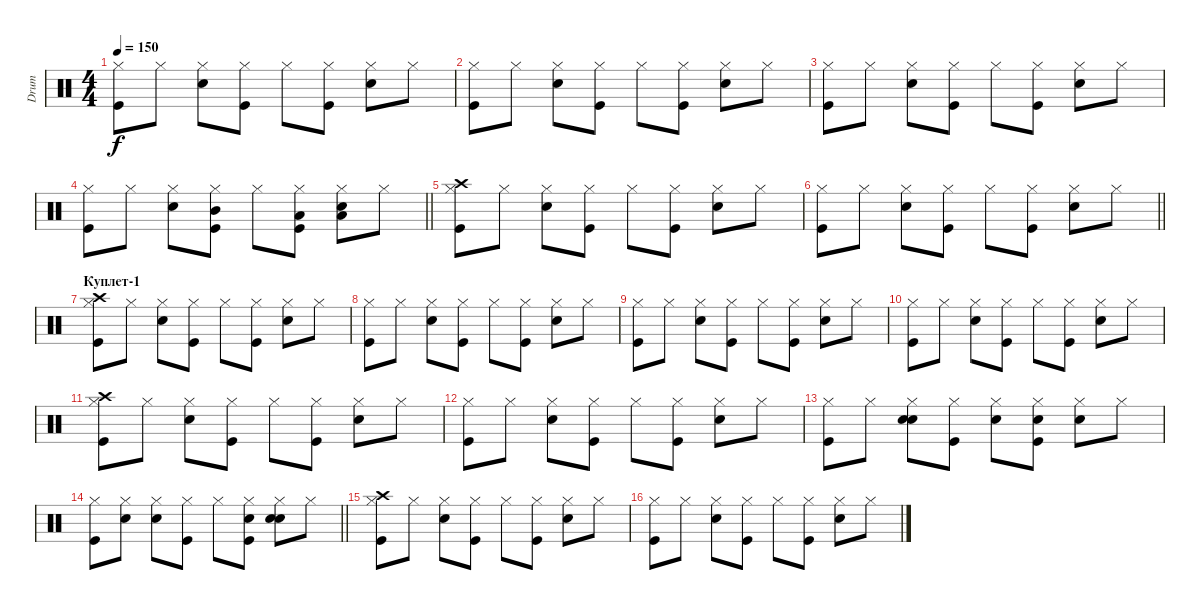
\track ("Drum" "Drum") {instrument percussion}
\staff {score}
\articulation defaults
\ts (4 4)
\tempo 150
\clef neutral
\ks c
("Kick (hit)" "Hi-Hat (closed)").8{dy f} "Hi-Hat (closed)".8 ("Snare (hit) 2" "Hi-Hat (closed)").8 ("Kick (hit)" "Hi-Hat (closed)").8 "Hi-Hat (closed)".8 ("Kick (hit)" "Hi-Hat (closed)").8 ("Snare (hit) 2" "Hi-Hat (closed)").8 "Hi-Hat (closed)".8 |
("Kick (hit)" "Hi-Hat (closed)").8 "Hi-Hat (closed)".8 ("Snare (hit) 2" "Hi-Hat (closed)").8 ("Kick (hit)" "Hi-Hat (closed)").8 "Hi-Hat (closed)".8 ("Kick (hit)" "Hi-Hat (closed)").8 ("Snare (hit) 2" "Hi-Hat (closed)").8 "Hi-Hat (closed)".8 |
("Kick (hit)" "Hi-Hat (closed)").8 "Hi-Hat (closed)".8 ("Snare (hit) 2" "Hi-Hat (closed)").8 ("Kick (hit)" "Hi-Hat (closed)").8 "Hi-Hat (closed)".8 ("Kick (hit)" "Hi-Hat (closed)").8 ("Snare (hit) 2" "Hi-Hat (closed)").8 "Hi-Hat (closed)".8 |
\barLineRight lightlight
("Kick (hit)" "Hi-Hat (closed)").8 "Hi-Hat (closed)".8 ("Snare (hit) 2" "Hi-Hat (closed)").8 ("Kick (hit)" "Hi-Hat (closed)" "Mid Tom (hit)").8 "Hi-Hat (closed)".8 ("Kick (hit)" "Hi-Hat (closed)" "Low Tom (hit)").8 ("Snare (hit) 2" "Hi-Hat (closed)" "Low Tom (hit)").8 "Hi-Hat (closed)".8 |
("Kick (hit)" "Hi-Hat (closed)" "Crash high (hit)").8 "Hi-Hat (closed)".8 ("Snare (hit) 2" "Hi-Hat (closed)").8 ("Kick (hit)" "Hi-Hat (closed)").8 "Hi-Hat (closed)".8 ("Kick (hit)" "Hi-Hat (closed)").8 ("Snare (hit) 2" "Hi-Hat (closed)").8 "Hi-Hat (closed)".8 |
\barLineRight lightlight
("Kick (hit)" "Hi-Hat (closed)").8 "Hi-Hat (closed)".8 ("Snare (hit) 2" "Hi-Hat (closed)").8 ("Kick (hit)" "Hi-Hat (closed)").8 "Hi-Hat (closed)".8 ("Kick (hit)" "Hi-Hat (closed)").8 ("Snare (hit) 2" "Hi-Hat (closed)").8 "Hi-Hat (closed)".8 |
\section ("" "Куплет-1")
("Kick (hit)" "Hi-Hat (closed)" "Crash high (hit)").8 "Hi-Hat (closed)".8 ("Snare (hit) 2" "Hi-Hat (closed)").8 ("Kick (hit)" "Hi-Hat (closed)").8 "Hi-Hat (closed)".8 ("Kick (hit)" "Hi-Hat (closed)").8 ("Snare (hit) 2" "Hi-Hat (closed)").8 "Hi-Hat (closed)".8 |
("Kick (hit)" "Hi-Hat (closed)").8 "Hi-Hat (closed)".8 ("Snare (hit) 2" "Hi-Hat (closed)").8 ("Kick (hit)" "Hi-Hat (closed)").8 "Hi-Hat (closed)".8 ("Kick (hit)" "Hi-Hat (closed)").8 ("Snare (hit) 2" "Hi-Hat (closed)").8 "Hi-Hat (closed)".8 |
("Kick (hit)" "Hi-Hat (closed)").8 "Hi-Hat (closed)".8 ("Snare (hit) 2" "Hi-Hat (closed)").8 ("Kick (hit)" "Hi-Hat (closed)").8 "Hi-Hat (closed)".8 ("Kick (hit)" "Hi-Hat (closed)").8 ("Snare (hit) 2" "Hi-Hat (closed)").8 "Hi-Hat (closed)".8 |
("Kick (hit)" "Hi-Hat (closed)").8 "Hi-Hat (closed)".8 ("Snare (hit) 2" "Hi-Hat (closed)").8 ("Kick (hit)" "Hi-Hat (closed)").8 "Hi-Hat (closed)".8 ("Kick (hit)" "Hi-Hat (closed)").8 ("Snare (hit) 2" "Hi-Hat (closed)").8 "Hi-Hat (closed)".8 |
("Kick (hit)" "Hi-Hat (closed)" "Crash high (hit)").8 "Hi-Hat (closed)".8 ("Snare (hit) 2" "Hi-Hat (closed)").8 ("Kick (hit)" "Hi-Hat (closed)").8 "Hi-Hat (closed)".8 ("Kick (hit)" "Hi-Hat (closed)").8 ("Snare (hit) 2" "Hi-Hat (closed)").8 "Hi-Hat (closed)".8 |
("Kick (hit)" "Hi-Hat (closed)").8 "Hi-Hat (closed)".8 ("Snare (hit) 2" "Hi-Hat (closed)").8 ("Kick (hit)" "Hi-Hat (closed)").8 "Hi-Hat (closed)".8 ("Kick (hit)" "Hi-Hat (closed)").8 ("Snare (hit) 2" "Hi-Hat (closed)").8 "Hi-Hat (closed)".8 |
("Kick (hit)" "Hi-Hat (closed)").8 "Hi-Hat (closed)".8 ("Snare (hit) 2" "Hi-Hat (closed)" "Hand Clap (hit)").8 ("Kick (hit)" "Hi-Hat (closed)").8 ("Hi-Hat (closed)" "Hand Clap (hit)").8 ("Kick (hit)" "Hi-Hat (closed)" "Hand Clap (hit)").8 ("Snare (hit) 2" "Hi-Hat (closed)").8 "Hi-Hat (closed)".8 |
\barLineRight lightlight
("Kick (hit)" "Hi-Hat (closed)").8 ("Hi-Hat (closed)" "Hand Clap (hit)").8 ("Snare (hit) 2" "Hi-Hat (closed)").8 ("Kick (hit)" "Hi-Hat (closed)").8 "Hi-Hat (closed)".8 ("Kick (hit)" "Hi-Hat (closed)" "Hand Clap (hit)").8 ("Snare (hit) 2" "Hi-Hat (closed)" "Hand Clap (hit)").8 "Hi-Hat (closed)".8 |
("Kick (hit)" "Hi-Hat (closed)" "Crash high (hit)").8 "Hi-Hat (closed)".8 ("Snare (hit) 2" "Hi-Hat (closed)").8 ("Kick (hit)" "Hi-Hat (closed)").8 "Hi-Hat (closed)".8 ("Kick (hit)" "Hi-Hat (closed)").8 ("Snare (hit) 2" "Hi-Hat (closed)").8 "Hi-Hat (closed)".8 |
("Kick (hit)" "Hi-Hat (closed)").8 "Hi-Hat (closed)".8 ("Snare (hit) 2" "Hi-Hat (closed)").8 ("Kick (hit)" "Hi-Hat (closed)").8 "Hi-Hat (closed)".8 ("Kick (hit)" "Hi-Hat (closed)").8 ("Snare (hit) 2" "Hi-Hat (closed)").8 "Hi-Hat (closed)".8
